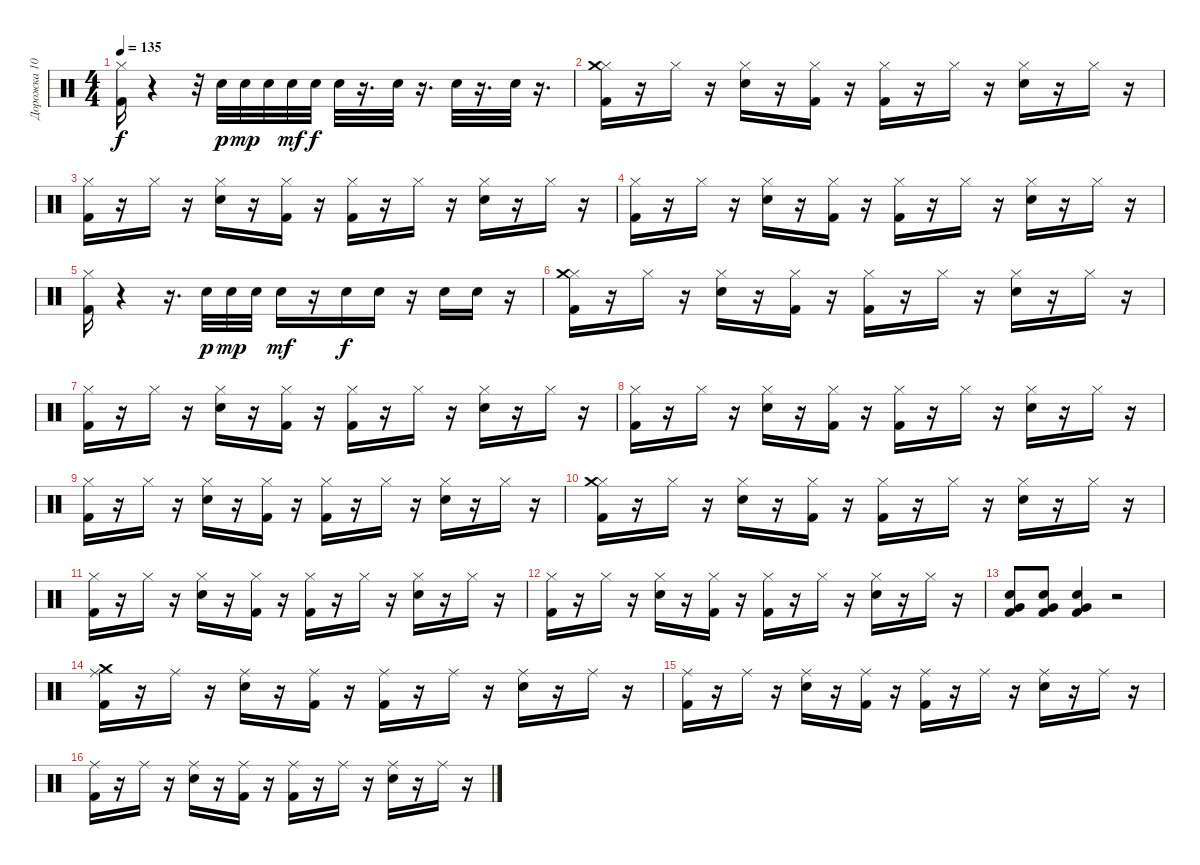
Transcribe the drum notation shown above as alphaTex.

\track ("Дорожка 10" "Дорожка 10") {instrument percussion}
\staff {score}
\articulation defaults
\ts (4 4)
\tempo 135
\clef neutral
\ks c
("Hi-Hat (closed)" "Kick (hit) 2").16{dy f} r.4 r.32 "Electric Snare (hit)".32{dy p} "Electric Snare (hit)".32{dy mp} "Electric Snare (hit)".32 "Electric Snare (hit)".32{dy mf} "Electric Snare (hit)".32{dy f} "Electric Snare (hit)".32 r.16{d} "Electric Snare (hit)".32 r.16{d} "Electric Snare (hit)".32 r.16{d} "Electric Snare (hit)".32 r.16{d} |
("Hi-Hat (closed)" "Crash medium (hit)" "Kick (hit) 2").16 r.16 "Hi-Hat (closed)".16 r.16 ("Hi-Hat (closed)" "Electric Snare (hit)").16 r.16 ("Hi-Hat (closed)" "Kick (hit) 2").16 r.16 ("Hi-Hat (closed)" "Kick (hit) 2").16 r.16 "Hi-Hat (closed)".16 r.16 ("Hi-Hat (closed)" "Electric Snare (hit)").16 r.16 "Hi-Hat (closed)".16 r.16 |
("Hi-Hat (closed)" "Kick (hit) 2").16 r.16 "Hi-Hat (closed)".16 r.16 ("Hi-Hat (closed)" "Electric Snare (hit)").16 r.16 ("Hi-Hat (closed)" "Kick (hit) 2").16 r.16 ("Hi-Hat (closed)" "Kick (hit) 2").16 r.16 "Hi-Hat (closed)".16 r.16 ("Hi-Hat (closed)" "Electric Snare (hit)").16 r.16 "Hi-Hat (closed)".16 r.16 |
("Hi-Hat (closed)" "Kick (hit) 2").16 r.16 "Hi-Hat (closed)".16 r.16 ("Hi-Hat (closed)" "Electric Snare (hit)").16 r.16 ("Hi-Hat (closed)" "Kick (hit) 2").16 r.16 ("Hi-Hat (closed)" "Kick (hit) 2").16 r.16 "Hi-Hat (closed)".16 r.16 ("Hi-Hat (closed)" "Electric Snare (hit)").16 r.16 "Hi-Hat (closed)".16 r.16 |
("Hi-Hat (closed)" "Kick (hit) 2").16 r.4 r.16{d} "Electric Snare (hit)".32{dy p} "Electric Snare (hit)".32{dy mp} "Electric Snare (hit)".32 "Electric Snare (hit)".16{dy mf} r.16 "Electric Snare (hit)".16{dy f} "Electric Snare (hit)".16 r.16 "Electric Snare (hit)".16 "Electric Snare (hit)".16 r.16 |
("Hi-Hat (closed)" "Crash medium (hit)" "Kick (hit) 2").16 r.16 "Hi-Hat (closed)".16 r.16 ("Hi-Hat (closed)" "Electric Snare (hit)").16 r.16 ("Hi-Hat (closed)" "Kick (hit) 2").16 r.16 ("Hi-Hat (closed)" "Kick (hit) 2").16 r.16 "Hi-Hat (closed)".16 r.16 ("Hi-Hat (closed)" "Electric Snare (hit)").16 r.16 "Hi-Hat (closed)".16 r.16 |
("Hi-Hat (closed)" "Kick (hit) 2").16 r.16 "Hi-Hat (closed)".16 r.16 ("Hi-Hat (closed)" "Electric Snare (hit)").16 r.16 ("Hi-Hat (closed)" "Kick (hit) 2").16 r.16 ("Hi-Hat (closed)" "Kick (hit) 2").16 r.16 "Hi-Hat (closed)".16 r.16 ("Hi-Hat (closed)" "Electric Snare (hit)").16 r.16 "Hi-Hat (closed)".16 r.16 |
("Hi-Hat (closed)" "Kick (hit) 2").16 r.16 "Hi-Hat (closed)".16 r.16 ("Hi-Hat (closed)" "Electric Snare (hit)").16 r.16 ("Hi-Hat (closed)" "Kick (hit) 2").16 r.16 ("Hi-Hat (closed)" "Kick (hit) 2").16 r.16 "Hi-Hat (closed)".16 r.16 ("Hi-Hat (closed)" "Electric Snare (hit)").16 r.16 "Hi-Hat (closed)".16 r.16 |
("Hi-Hat (closed)" "Kick (hit) 2").16 r.16 "Hi-Hat (closed)".16 r.16 ("Hi-Hat (closed)" "Electric Snare (hit)").16 r.16 ("Hi-Hat (closed)" "Kick (hit) 2").16 r.16 ("Hi-Hat (closed)" "Kick (hit) 2").16 r.16 "Hi-Hat (closed)".16 r.16 ("Hi-Hat (closed)" "Electric Snare (hit)").16 r.16 "Hi-Hat (closed)".16 r.16 |
("Hi-Hat (closed)" "Crash medium (hit)" "Kick (hit) 2").16 r.16 "Hi-Hat (closed)".16 r.16 ("Hi-Hat (closed)" "Electric Snare (hit)").16 r.16 ("Hi-Hat (closed)" "Kick (hit) 2").16 r.16 ("Hi-Hat (closed)" "Kick (hit) 2").16 r.16 "Hi-Hat (closed)".16 r.16 ("Hi-Hat (closed)" "Electric Snare (hit)").16 r.16 "Hi-Hat (closed)".16 r.16 |
("Hi-Hat (closed)" "Kick (hit) 2").16 r.16 "Hi-Hat (closed)".16 r.16 ("Hi-Hat (closed)" "Electric Snare (hit)").16 r.16 ("Hi-Hat (closed)" "Kick (hit) 2").16 r.16 ("Hi-Hat (closed)" "Kick (hit) 2").16 r.16 "Hi-Hat (closed)".16 r.16 ("Hi-Hat (closed)" "Electric Snare (hit)").16 r.16 "Hi-Hat (closed)".16 r.16 |
("Hi-Hat (closed)" "Kick (hit) 2").16 r.16 "Hi-Hat (closed)".16 r.16 ("Hi-Hat (closed)" "Electric Snare (hit)").16 r.16 ("Hi-Hat (closed)" "Kick (hit) 2").16 r.16 ("Hi-Hat (closed)" "Kick (hit) 2").16 r.16 "Hi-Hat (closed)".16 r.16 ("Hi-Hat (closed)" "Electric Snare (hit)").16 r.16 "Hi-Hat (closed)".16 r.16 |
("Very Low Tom (hit)" "Kick (hit) 2" "Electric Snare (hit)").8 ("Kick (hit) 2" "Very Low Tom (hit)" "Electric Snare (hit)").8 ("Kick (hit) 2" "Very Low Tom (hit)" "Electric Snare (hit)").4 r.2 |
("Ride (middle)" "Crash medium (hit)" "Kick (hit) 2").16 r.16 "Ride (middle)".16 r.16 ("Ride (middle)" "Electric Snare (hit)").16 r.16 ("Ride (middle)" "Kick (hit) 2").16 r.16 ("Ride (middle)" "Kick (hit) 2").16 r.16 "Ride (middle)".16 r.16 ("Ride (middle)" "Electric Snare (hit)").16 r.16 "Ride (middle)".16 r.16 |
("Kick (hit) 2" "Ride (middle)").16 r.16 "Ride (middle)".16 r.16 ("Electric Snare (hit)" "Ride (middle)").16 r.16 ("Kick (hit) 2" "Ride (middle)").16 r.16 ("Kick (hit) 2" "Ride (middle)").16 r.16 "Ride (middle)".16 r.16 ("Electric Snare (hit)" "Ride (middle)").16 r.16 "Ride (middle)".16 r.16 |
("Kick (hit) 2" "Ride (middle)").16 r.16 "Ride (middle)".16 r.16 ("Electric Snare (hit)" "Ride (middle)").16 r.16 ("Kick (hit) 2" "Ride (middle)").16 r.16 ("Kick (hit) 2" "Ride (middle)").16 r.16 "Ride (middle)".16 r.16 ("Electric Snare (hit)" "Ride (middle)").16 r.16 "Ride (middle)".16 r.16
